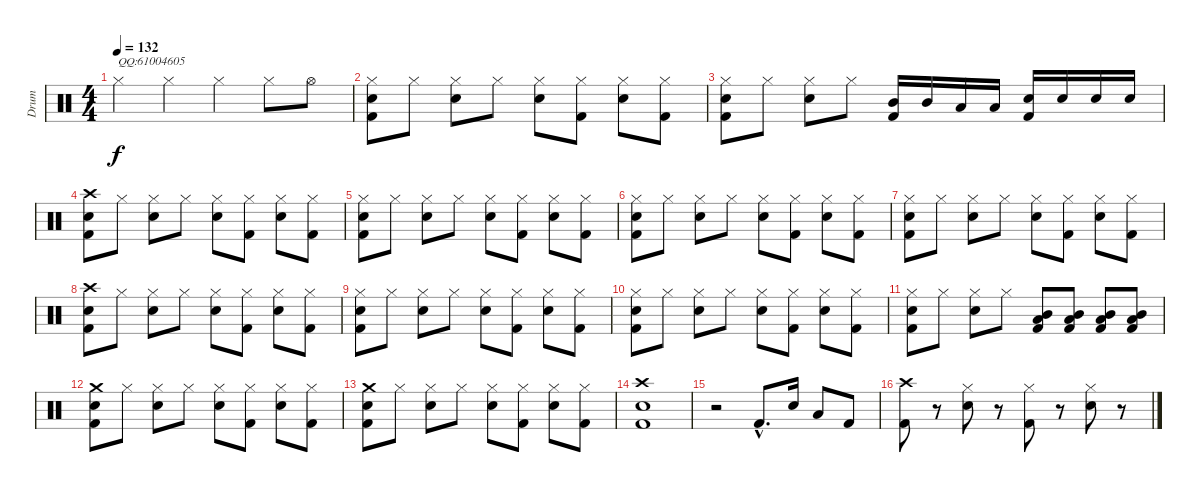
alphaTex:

\track ("Drum" "Drum") {instrument percussion}
\staff {score}
\articulation defaults
\ts (4 4)
\tempo 132
\clef neutral
\ks c "Hi-Hat (closed)".4{txt "QQ:61004605" dy f} "Hi-Hat (closed)".4 "Hi-Hat (closed)".4 "Hi-Hat (closed)".8 "Hi-Hat (open)".8
|
("Hi-Hat (closed)" "Electric Snare (hit)" "Kick (hit) 2").8 "Hi-Hat (closed)".8 ("Hi-Hat (closed)" "Electric Snare (hit)").8 "Hi-Hat (closed)".8 ("Hi-Hat (closed)" "Electric Snare (hit)").8 ("Hi-Hat (closed)" "Kick (hit) 2").8 ("Hi-Hat (closed)" "Electric Snare (hit)").8 ("Hi-Hat (closed)" "Kick (hit) 2").8 |
("Hi-Hat (closed)" "Electric Snare (hit)" "Kick (hit) 2").8 "Hi-Hat (closed)".8 ("Hi-Hat (closed)" "Electric Snare (hit)").8 "Hi-Hat (closed)".8 ("Mid Tom (hit)" "Kick (hit) 2").16 "Mid Tom (hit)".16 "Low Tom (hit)".16 "Low Tom (hit)".16 ("Electric Snare (hit)" "Kick (hit) 2").16 "Electric Snare (hit)".16 "Electric Snare (hit)".16 "Electric Snare (hit)".16 |
("Crash high (hit)" "Electric Snare (hit)" "Kick (hit) 2").8 "Hi-Hat (closed)".8 ("Hi-Hat (closed)" "Electric Snare (hit)").8 "Hi-Hat (closed)".8 ("Hi-Hat (closed)" "Electric Snare (hit)").8 ("Hi-Hat (closed)" "Kick (hit) 2").8 ("Hi-Hat (closed)" "Electric Snare (hit)").8 ("Hi-Hat (closed)" "Kick (hit) 2").8 |
("Hi-Hat (closed)" "Electric Snare (hit)" "Kick (hit) 2").8 "Hi-Hat (closed)".8 ("Hi-Hat (closed)" "Electric Snare (hit)").8 "Hi-Hat (closed)".8 ("Hi-Hat (closed)" "Electric Snare (hit)").8 ("Hi-Hat (closed)" "Kick (hit) 2").8 ("Hi-Hat (closed)" "Electric Snare (hit)").8 ("Hi-Hat (closed)" "Kick (hit) 2").8 |
("Hi-Hat (closed)" "Electric Snare (hit)" "Kick (hit) 2").8 "Hi-Hat (closed)".8 ("Hi-Hat (closed)" "Electric Snare (hit)").8 "Hi-Hat (closed)".8 ("Hi-Hat (closed)" "Electric Snare (hit)").8 ("Hi-Hat (closed)" "Kick (hit) 2").8 ("Hi-Hat (closed)" "Electric Snare (hit)").8 ("Hi-Hat (closed)" "Kick (hit) 2").8 |
("Hi-Hat (closed)" "Electric Snare (hit)" "Kick (hit) 2").8 "Hi-Hat (closed)".8 ("Hi-Hat (closed)" "Electric Snare (hit)").8 "Hi-Hat (closed)".8 ("Hi-Hat (closed)" "Electric Snare (hit)").8 ("Hi-Hat (closed)" "Kick (hit) 2").8 ("Hi-Hat (closed)" "Electric Snare (hit)").8 ("Hi-Hat (closed)" "Kick (hit) 2").8 |
("Crash high (hit)" "Electric Snare (hit)" "Kick (hit) 2").8 "Hi-Hat (closed)".8 ("Hi-Hat (closed)" "Electric Snare (hit)").8 "Hi-Hat (closed)".8 ("Hi-Hat (closed)" "Electric Snare (hit)").8 ("Hi-Hat (closed)" "Kick (hit) 2").8 ("Hi-Hat (closed)" "Electric Snare (hit)").8 ("Hi-Hat (closed)" "Kick (hit) 2").8 |
("Hi-Hat (closed)" "Electric Snare (hit)" "Kick (hit) 2").8 "Hi-Hat (closed)".8 ("Hi-Hat (closed)" "Electric Snare (hit)").8 "Hi-Hat (closed)".8 ("Hi-Hat (closed)" "Electric Snare (hit)").8 ("Hi-Hat (closed)" "Kick (hit) 2").8 ("Hi-Hat (closed)" "Electric Snare (hit)").8 ("Hi-Hat (closed)" "Kick (hit) 2").8 |
("Hi-Hat (closed)" "Electric Snare (hit)" "Kick (hit) 2").8 "Hi-Hat (closed)".8 ("Hi-Hat (closed)" "Electric Snare (hit)").8 "Hi-Hat (closed)".8 ("Hi-Hat (closed)" "Electric Snare (hit)").8 ("Hi-Hat (closed)" "Kick (hit) 2").8 ("Hi-Hat (closed)" "Electric Snare (hit)").8 ("Hi-Hat (closed)" "Kick (hit) 2").8 |
("Hi-Hat (closed)" "Electric Snare (hit)" "Kick (hit) 2").8 "Hi-Hat (closed)".8 ("Hi-Hat (closed)" "Electric Snare (hit)").8 "Hi-Hat (closed)".8 ("Low Tom (hit)" "Mid Tom (hit)" "Kick (hit) 2").8 ("Low Tom (hit)" "Mid Tom (hit)" "Kick (hit) 2").8 ("Low Tom (hit)" "Mid Tom (hit)" "Kick (hit) 2").8 ("Low Tom (hit)" "Mid Tom (hit)" "Kick (hit) 2").8 |
("Crash medium (hit)" "Electric Snare (hit)" "Kick (hit) 2").8 "Hi-Hat (closed)".8 ("Hi-Hat (closed)" "Electric Snare (hit)").8 "Hi-Hat (closed)".8 ("Hi-Hat (closed)" "Electric Snare (hit)").8 ("Hi-Hat (closed)" "Kick (hit) 2").8 ("Hi-Hat (closed)" "Electric Snare (hit)").8 ("Hi-Hat (closed)" "Kick (hit) 2").8 |
("Crash medium (hit)" "Electric Snare (hit)" "Kick (hit) 2").8 "Hi-Hat (closed)".8 ("Hi-Hat (closed)" "Electric Snare (hit)").8 "Hi-Hat (closed)".8 ("Hi-Hat (closed)" "Electric Snare (hit)").8 ("Hi-Hat (closed)" "Kick (hit) 2").8 ("Hi-Hat (closed)" "Electric Snare (hit)").8 ("Hi-Hat (closed)" "Kick (hit) 2").8 |
("Crash high (hit)" "Electric Snare (hit)" "Kick (hit) 2").1 |
r.2 "Kick (hit) 2"{hac}.8{d} "Electric Snare (hit)".16 "Low Tom (hit)".8 "Kick (hit) 2".8 |
("Crash high (hit)" "Kick (hit) 2").8 r.8 ("Hi-Hat (closed)" "Electric Snare (hit)").8 r.8 ("Hi-Hat (closed)" "Kick (hit) 2").8 r.8 ("Hi-Hat (closed)" "Electric Snare (hit)").8 r.8
